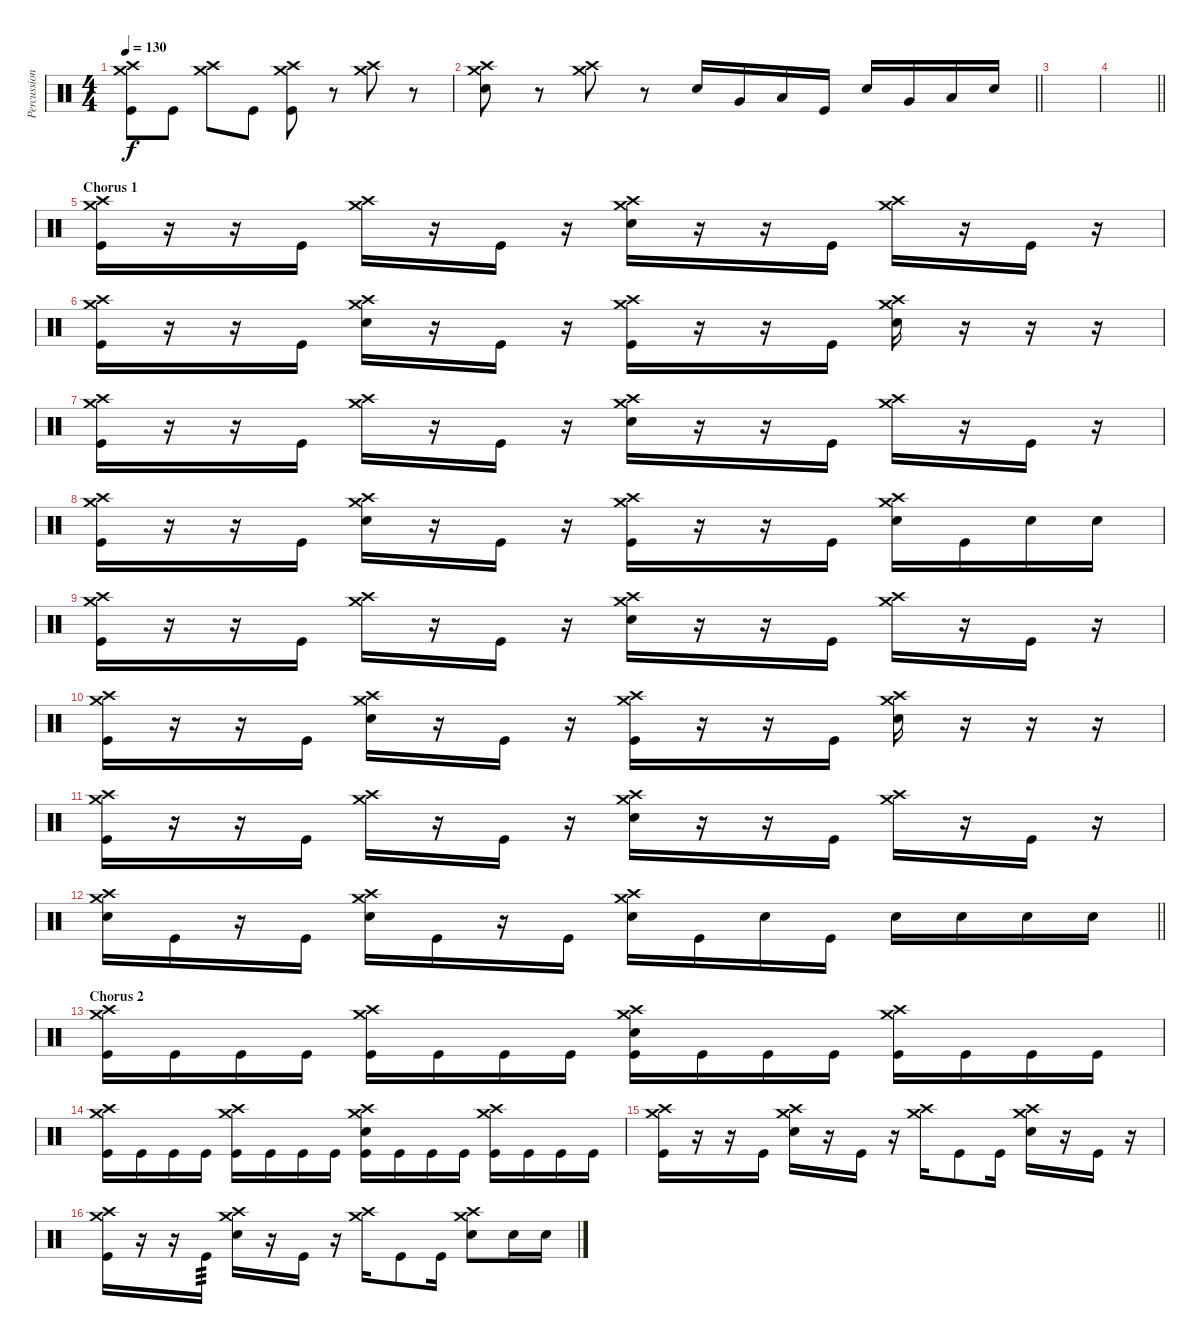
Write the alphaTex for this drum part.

\track ("Percussion (Approx.)" "Percussion") {instrument percussion}
\staff {score}
\articulation defaults
\ts (4 4)
\tempo 130
\clef neutral
\ks c
("Crash medium (hit)" "Crash high (hit)" "Kick (hit)").8{dy f} "Kick (hit)".8 ("Crash medium (hit)" "Crash high (hit)").8 "Kick (hit)".8 ("Crash medium (hit)" "Crash high (hit)" "Kick (hit)").8 r.8 ("Crash medium (hit)" "Crash high (hit)").8 r.8 |
\barLineRight lightlight
("Crash medium (hit)" "Crash high (hit)" "Electric Snare (hit)").8 r.8 ("Crash medium (hit)" "Crash high (hit)").8 r.8 "Electric Snare (hit)".16 "Very Low Tom (hit)".16 "Low Floor Tom (hit)".16 "Kick (hit)".16 "Electric Snare (hit)".16 "Very Low Tom (hit)".16 "Low Floor Tom (hit)".16 "Electric Snare (hit)".16 |
\section ("" "")
|
\barLineRight lightlight
|
\section ("" "Chorus 1")
("Crash medium (hit)" "Crash high (hit)" "Kick (hit)").16 r.16 r.16 "Kick (hit)".16 ("Crash medium (hit)" "Crash high (hit)").16 r.16 "Kick (hit)".16 r.16 ("Crash medium (hit)" "Crash high (hit)" "Electric Snare (hit)").16 r.16 r.16 "Kick (hit)".16 ("Crash medium (hit)" "Crash high (hit)").16 r.16 "Kick (hit)".16 r.16 |
("Crash medium (hit)" "Crash high (hit)" "Kick (hit)").16 r.16 r.16 "Kick (hit)".16 ("Crash medium (hit)" "Crash high (hit)" "Electric Snare (hit)").16 r.16 "Kick (hit)".16 r.16 ("Crash medium (hit)" "Crash high (hit)" "Kick (hit)").16 r.16 r.16 "Kick (hit)".16 ("Crash medium (hit)" "Crash high (hit)" "Electric Snare (hit)").16 r.16 r.16 r.16 |
("Crash medium (hit)" "Crash high (hit)" "Kick (hit)").16 r.16 r.16 "Kick (hit)".16 ("Crash medium (hit)" "Crash high (hit)").16 r.16 "Kick (hit)".16 r.16 ("Crash medium (hit)" "Crash high (hit)" "Electric Snare (hit)").16 r.16 r.16 "Kick (hit)".16 ("Crash medium (hit)" "Crash high (hit)").16 r.16 "Kick (hit)".16 r.16 |
("Crash medium (hit)" "Crash high (hit)" "Kick (hit)").16 r.16 r.16 "Kick (hit)".16 ("Crash medium (hit)" "Crash high (hit)" "Electric Snare (hit)").16 r.16 "Kick (hit)".16 r.16 ("Crash medium (hit)" "Crash high (hit)" "Kick (hit)").16 r.16 r.16 "Kick (hit)".16 ("Crash medium (hit)" "Crash high (hit)" "Electric Snare (hit)").16 "Kick (hit)".16 "Electric Snare (hit)".16 "Electric Snare (hit)".16 |
("Crash medium (hit)" "Crash high (hit)" "Kick (hit)").16 r.16 r.16 "Kick (hit)".16 ("Crash medium (hit)" "Crash high (hit)").16 r.16 "Kick (hit)".16 r.16 ("Crash medium (hit)" "Crash high (hit)" "Electric Snare (hit)").16 r.16 r.16 "Kick (hit)".16 ("Crash medium (hit)" "Crash high (hit)").16 r.16 "Kick (hit)".16 r.16 |
("Crash medium (hit)" "Crash high (hit)" "Kick (hit)").16 r.16 r.16 "Kick (hit)".16 ("Crash medium (hit)" "Crash high (hit)" "Electric Snare (hit)").16 r.16 "Kick (hit)".16 r.16 ("Crash medium (hit)" "Crash high (hit)" "Kick (hit)").16 r.16 r.16 "Kick (hit)".16 ("Crash medium (hit)" "Crash high (hit)" "Electric Snare (hit)").16 r.16 r.16 r.16 |
("Crash medium (hit)" "Crash high (hit)" "Kick (hit)").16 r.16 r.16 "Kick (hit)".16 ("Crash medium (hit)" "Crash high (hit)").16 r.16 "Kick (hit)".16 r.16 ("Crash medium (hit)" "Crash high (hit)" "Electric Snare (hit)").16 r.16 r.16 "Kick (hit)".16 ("Crash medium (hit)" "Crash high (hit)").16 r.16 "Kick (hit)".16 r.16 |
\barLineRight lightlight
("Crash high (hit)" "Crash medium (hit)" "Electric Snare (hit)").16 "Kick (hit)".16 r.16 "Kick (hit)".16 ("Crash high (hit)" "Crash medium (hit)" "Electric Snare (hit)").16 "Kick (hit)".16 r.16 "Kick (hit)".16 ("Crash high (hit)" "Crash medium (hit)" "Electric Snare (hit)").16 "Kick (hit)".16 "Electric Snare (hit)".16 "Kick (hit)".16 "Electric Snare (hit)".16 "Electric Snare (hit)".16 "Electric Snare (hit)".16 "Electric Snare (hit)".16 |
\section ("" "Chorus 2")
("Crash medium (hit)" "Crash high (hit)" "Kick (hit)").16 "Kick (hit)".16 "Kick (hit)".16 "Kick (hit)".16 ("Crash medium (hit)" "Crash high (hit)" "Kick (hit)").16 "Kick (hit)".16 "Kick (hit)".16 "Kick (hit)".16 ("Crash medium (hit)" "Crash high (hit)" "Electric Snare (hit)" "Kick (hit)").16 "Kick (hit)".16 "Kick (hit)".16 "Kick (hit)".16 ("Crash medium (hit)" "Crash high (hit)" "Kick (hit)").16 "Kick (hit)".16 "Kick (hit)".16 "Kick (hit)".16 |
("Crash medium (hit)" "Crash high (hit)" "Kick (hit)").16 "Kick (hit)".16 "Kick (hit)".16 "Kick (hit)".16 ("Crash medium (hit)" "Crash high (hit)" "Kick (hit)").16 "Kick (hit)".16 "Kick (hit)".16 "Kick (hit)".16 ("Crash medium (hit)" "Crash high (hit)" "Electric Snare (hit)" "Kick (hit)").16 "Kick (hit)".16 "Kick (hit)".16 "Kick (hit)".16 ("Crash medium (hit)" "Crash high (hit)" "Kick (hit)").16 "Kick (hit)".16 "Kick (hit)".16 "Kick (hit)".16 |
("Crash medium (hit)" "Crash high (hit)" "Kick (hit)").16 r.16 r.16 "Kick (hit)".16 ("Crash medium (hit)" "Crash high (hit)" "Electric Snare (hit)").16 r.16 "Kick (hit)".16 r.16 ("Crash medium (hit)" "Crash high (hit)").16 "Kick (hit)".8 "Kick (hit)".16 ("Crash medium (hit)" "Crash high (hit)" "Electric Snare (hit)").16 r.16 "Kick (hit)".16 r.16 |
("Crash medium (hit)" "Crash high (hit)" "Kick (hit)").16 r.16 r.16 "Kick (hit)".16{tp 3} ("Crash medium (hit)" "Crash high (hit)" "Electric Snare (hit)").16 r.16 "Kick (hit)".16 r.16 ("Crash medium (hit)" "Crash high (hit)").16 "Kick (hit)".8 "Kick (hit)".16 ("Crash medium (hit)" "Crash high (hit)" "Electric Snare (hit)").8 "Electric Snare (hit)".16 "Electric Snare (hit)".16
